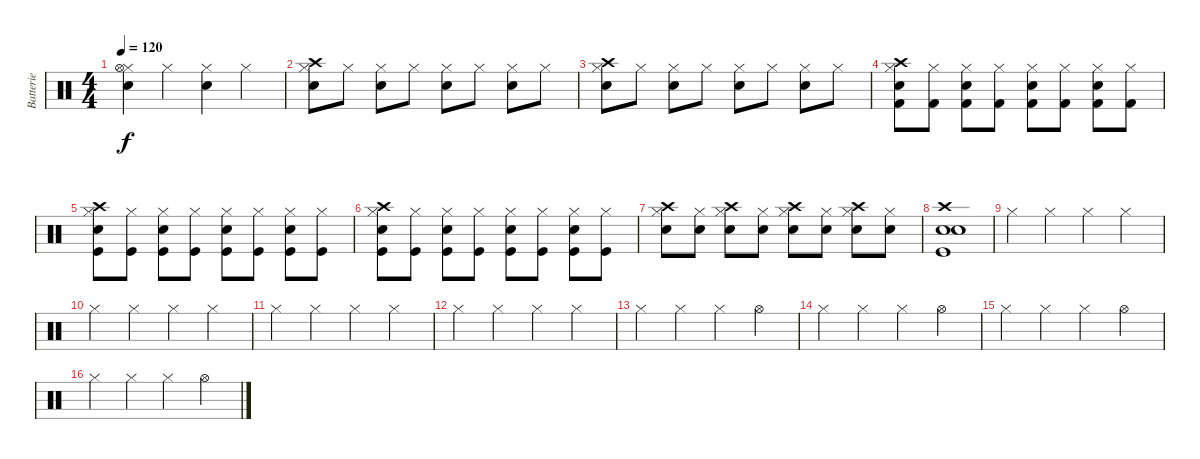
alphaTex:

\track ("Batterie" "Batterie") {instrument percussion}
\staff {score}
\articulation defaults
\ts (4 4)
\tempo 120
\clef neutral
\ks c
("Hi-Hat (closed)" "Electric Snare (hit)" "Hi-Hat (open)").4{dy f} "Hi-Hat (closed)".4 ("Hi-Hat (closed)" "Electric Snare (hit)").4 "Hi-Hat (closed)".4 |
("Hi-Hat (closed)" "Electric Snare (hit)" "Crash high (hit)").8 "Hi-Hat (closed)".8 ("Hi-Hat (closed)" "Electric Snare (hit)").8 "Hi-Hat (closed)".8 ("Hi-Hat (closed)" "Electric Snare (hit)").8 "Hi-Hat (closed)".8 ("Hi-Hat (closed)" "Electric Snare (hit)").8 "Hi-Hat (closed)".8 |
("Hi-Hat (closed)" "Electric Snare (hit)" "Crash high (hit)").8 "Hi-Hat (closed)".8 ("Hi-Hat (closed)" "Electric Snare (hit)").8 "Hi-Hat (closed)".8 ("Hi-Hat (closed)" "Electric Snare (hit)").8 "Hi-Hat (closed)".8 ("Hi-Hat (closed)" "Electric Snare (hit)").8 "Hi-Hat (closed)".8 |
("Hi-Hat (closed)" "Electric Snare (hit)" "Crash high (hit)" "Kick (hit) 2").8 ("Hi-Hat (closed)" "Kick (hit) 2").8 ("Hi-Hat (closed)" "Electric Snare (hit)" "Kick (hit) 2").8 ("Hi-Hat (closed)" "Kick (hit) 2").8 ("Hi-Hat (closed)" "Electric Snare (hit)" "Kick (hit) 2").8 ("Hi-Hat (closed)" "Kick (hit) 2").8 ("Hi-Hat (closed)" "Electric Snare (hit)" "Kick (hit) 2").8 ("Hi-Hat (closed)" "Kick (hit) 2").8 |
("Hi-Hat (closed)" "Electric Snare (hit)" "Crash high (hit)" "Kick (hit)").8 ("Hi-Hat (closed)" "Kick (hit)").8 ("Hi-Hat (closed)" "Electric Snare (hit)" "Kick (hit)").8 ("Hi-Hat (closed)" "Kick (hit)").8 ("Hi-Hat (closed)" "Electric Snare (hit)" "Kick (hit)").8 ("Hi-Hat (closed)" "Kick (hit)").8 ("Hi-Hat (closed)" "Electric Snare (hit)" "Kick (hit)").8 ("Hi-Hat (closed)" "Kick (hit)").8 |
("Hi-Hat (closed)" "Electric Snare (hit)" "Crash high (hit)" "Kick (hit)").8 ("Hi-Hat (closed)" "Kick (hit)").8 ("Hi-Hat (closed)" "Electric Snare (hit)" "Kick (hit)").8 ("Hi-Hat (closed)" "Kick (hit)").8 ("Hi-Hat (closed)" "Electric Snare (hit)" "Kick (hit)").8 ("Hi-Hat (closed)" "Kick (hit)").8 ("Hi-Hat (closed)" "Electric Snare (hit)" "Kick (hit)").8 ("Hi-Hat (closed)" "Kick (hit)").8 |
("Hi-Hat (closed)" "Electric Snare (hit)" "Crash high (hit)").8 ("Hi-Hat (closed)" "Electric Snare (hit)").8 ("Hi-Hat (closed)" "Electric Snare (hit)" "Crash high (hit)").8 ("Hi-Hat (closed)" "Electric Snare (hit)").8 ("Hi-Hat (closed)" "Electric Snare (hit)" "Crash high (hit)").8 ("Hi-Hat (closed)" "Electric Snare (hit)").8 ("Hi-Hat (closed)" "Electric Snare (hit)" "Crash high (hit)").8 ("Hi-Hat (closed)" "Electric Snare (hit)").8 |
("Electric Snare (hit)" "Crash high (hit)" "Kick (hit)" "Electric Snare (hit)").1 |
"Hi-Hat (closed)".4 "Hi-Hat (closed)".4 "Hi-Hat (closed)".4 "Hi-Hat (closed)".4 |
"Hi-Hat (closed)".4 "Hi-Hat (closed)".4 "Hi-Hat (closed)".4 "Hi-Hat (closed)".4 |
"Hi-Hat (closed)".4 "Hi-Hat (closed)".4 "Hi-Hat (closed)".4 "Hi-Hat (closed)".4 |
"Hi-Hat (closed)".4 "Hi-Hat (closed)".4 "Hi-Hat (closed)".4 "Hi-Hat (closed)".4 |
"Hi-Hat (closed)".4 "Hi-Hat (closed)".4 "Hi-Hat (closed)".4 "Hi-Hat (open)".4 |
"Hi-Hat (closed)".4 "Hi-Hat (closed)".4 "Hi-Hat (closed)".4 "Hi-Hat (open)".4 |
"Hi-Hat (closed)".4 "Hi-Hat (closed)".4 "Hi-Hat (closed)".4 "Hi-Hat (open)".4 |
"Hi-Hat (closed)".4 "Hi-Hat (closed)".4 "Hi-Hat (closed)".4 "Hi-Hat (open)".4
